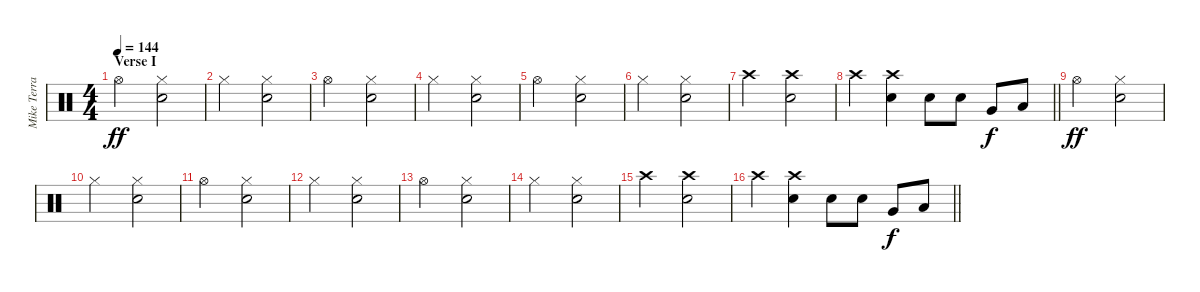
\track ("Mike Terrana" "Mike Terra") {instrument percussion}
\staff {score}
\articulation defaults
\ts (4 4)
\section ("" "Verse I")
\tempo 144
\clef neutral
\ks c "Hi-Hat (open)".2{dy ff}
("Snare (hit) 2" "Hi-Hat (closed)").2 |
"Hi-Hat (closed)".2 ("Snare (hit) 2" "Hi-Hat (closed)").2 |
"Hi-Hat (open)".2 ("Snare (hit) 2" "Hi-Hat (closed)").2 |
"Hi-Hat (closed)".2 ("Snare (hit) 2" "Hi-Hat (closed)").2 |
"Hi-Hat (open)".2 ("Snare (hit) 2" "Hi-Hat (closed)").2 |
"Hi-Hat (closed)".2 ("Snare (hit) 2" "Hi-Hat (closed)").2 |
"Crash high (hit)".2 ("Snare (hit) 2" "Crash high (hit)").2 |
\barLineRight lightlight "Crash high (hit)".4
("Snare (hit) 2" "Crash high (hit)").4 "Snare (hit) 2".8 "Snare (hit) 2".8 "Very Low Tom (hit)".8{dy f} "Low Floor Tom (hit)".8 |
"Hi-Hat (open)".2{dy ff} ("Snare (hit) 2" "Hi-Hat (closed)").2 |
"Hi-Hat (closed)".2 ("Snare (hit) 2" "Hi-Hat (closed)").2 |
"Hi-Hat (open)".2 ("Snare (hit) 2" "Hi-Hat (closed)").2 |
"Hi-Hat (closed)".2 ("Snare (hit) 2" "Hi-Hat (closed)").2 |
"Hi-Hat (open)".2 ("Snare (hit) 2" "Hi-Hat (closed)").2 |
"Hi-Hat (closed)".2 ("Snare (hit) 2" "Hi-Hat (closed)").2 |
"Crash high (hit)".2 ("Snare (hit) 2" "Crash high (hit)").2 |
\barLineRight lightlight "Crash high (hit)".4
("Snare (hit) 2" "Crash high (hit)").4 "Snare (hit) 2".8 "Snare (hit) 2".8 "Very Low Tom (hit)".8{dy f} "Low Floor Tom (hit)".8
